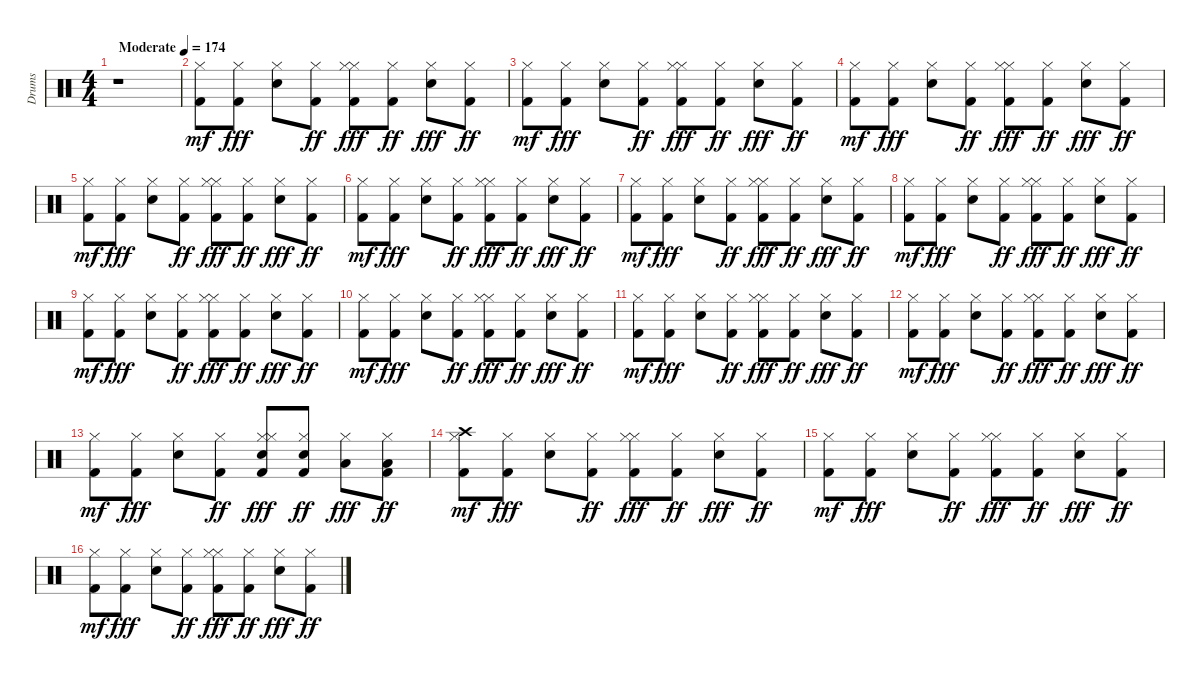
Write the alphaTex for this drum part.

\track ("Drums" "Drums") {instrument percussion}
\staff {score}
\articulation defaults
\ts (4 4)
\tempo (174 "Moderate")
\clef neutral
\ks c
r.1{dy mf} |
("Kick (hit) 2" "Hi-Hat (closed)").8 ("Hi-Hat (closed)" "Kick (hit) 2").8{dy fff} ("Hi-Hat (closed)" "Snare (hit) 2").8 ("Hi-Hat (closed)" "Kick (hit) 2").8{dy ff} ("Hi-Hat (closed)" "Hi-Hat (closed)" "Kick (hit) 2").8{dy fff} ("Hi-Hat (closed)" "Kick (hit) 2").8{dy ff} ("Hi-Hat (closed)" "Snare (hit) 2").8{dy fff} ("Hi-Hat (closed)" "Kick (hit) 2").8{dy ff} |
("Kick (hit) 2" "Hi-Hat (closed)").8{dy mf} ("Hi-Hat (closed)" "Kick (hit) 2").8{dy fff} ("Hi-Hat (closed)" "Snare (hit) 2").8 ("Hi-Hat (closed)" "Kick (hit) 2").8{dy ff} ("Hi-Hat (closed)" "Hi-Hat (closed)" "Kick (hit) 2").8{dy fff} ("Hi-Hat (closed)" "Kick (hit) 2").8{dy ff} ("Hi-Hat (closed)" "Snare (hit) 2").8{dy fff} ("Hi-Hat (closed)" "Kick (hit) 2").8{dy ff} |
("Kick (hit) 2" "Hi-Hat (closed)").8{dy mf} ("Hi-Hat (closed)" "Kick (hit) 2").8{dy fff} ("Hi-Hat (closed)" "Snare (hit) 2").8 ("Hi-Hat (closed)" "Kick (hit) 2").8{dy ff} ("Hi-Hat (closed)" "Hi-Hat (closed)" "Kick (hit) 2").8{dy fff} ("Hi-Hat (closed)" "Kick (hit) 2").8{dy ff} ("Hi-Hat (closed)" "Snare (hit) 2").8{dy fff} ("Hi-Hat (closed)" "Kick (hit) 2").8{dy ff} |
("Kick (hit) 2" "Hi-Hat (closed)").8{dy mf} ("Hi-Hat (closed)" "Kick (hit) 2").8{dy fff} ("Hi-Hat (closed)" "Snare (hit) 2").8 ("Hi-Hat (closed)" "Kick (hit) 2").8{dy ff} ("Hi-Hat (closed)" "Hi-Hat (closed)" "Kick (hit) 2").8{dy fff} ("Hi-Hat (closed)" "Kick (hit) 2").8{dy ff} ("Hi-Hat (closed)" "Snare (hit) 2").8{dy fff} ("Hi-Hat (closed)" "Kick (hit) 2").8{dy ff} |
("Kick (hit) 2" "Hi-Hat (closed)").8{dy mf} ("Hi-Hat (closed)" "Kick (hit) 2").8{dy fff} ("Hi-Hat (closed)" "Snare (hit) 2").8 ("Hi-Hat (closed)" "Kick (hit) 2").8{dy ff} ("Hi-Hat (closed)" "Hi-Hat (closed)" "Kick (hit) 2").8{dy fff} ("Hi-Hat (closed)" "Kick (hit) 2").8{dy ff} ("Hi-Hat (closed)" "Snare (hit) 2").8{dy fff} ("Hi-Hat (closed)" "Kick (hit) 2").8{dy ff} |
("Kick (hit) 2" "Hi-Hat (closed)").8{dy mf} ("Hi-Hat (closed)" "Kick (hit) 2").8{dy fff} ("Hi-Hat (closed)" "Snare (hit) 2").8 ("Hi-Hat (closed)" "Kick (hit) 2").8{dy ff} ("Hi-Hat (closed)" "Hi-Hat (closed)" "Kick (hit) 2").8{dy fff} ("Hi-Hat (closed)" "Kick (hit) 2").8{dy ff} ("Hi-Hat (closed)" "Snare (hit) 2").8{dy fff} ("Hi-Hat (closed)" "Kick (hit) 2").8{dy ff} |
("Kick (hit) 2" "Hi-Hat (closed)").8{dy mf} ("Hi-Hat (closed)" "Kick (hit) 2").8{dy fff} ("Hi-Hat (closed)" "Snare (hit) 2").8 ("Hi-Hat (closed)" "Kick (hit) 2").8{dy ff} ("Hi-Hat (closed)" "Hi-Hat (closed)" "Kick (hit) 2").8{dy fff} ("Hi-Hat (closed)" "Kick (hit) 2").8{dy ff} ("Hi-Hat (closed)" "Snare (hit) 2").8{dy fff} ("Hi-Hat (closed)" "Kick (hit) 2").8{dy ff} |
("Kick (hit) 2" "Hi-Hat (closed)").8{dy mf} ("Hi-Hat (closed)" "Kick (hit) 2").8{dy fff} ("Hi-Hat (closed)" "Snare (hit) 2").8 ("Hi-Hat (closed)" "Kick (hit) 2").8{dy ff} ("Hi-Hat (closed)" "Hi-Hat (closed)" "Kick (hit) 2").8{dy fff} ("Hi-Hat (closed)" "Kick (hit) 2").8{dy ff} ("Hi-Hat (closed)" "Snare (hit) 2").8{dy fff} ("Hi-Hat (closed)" "Kick (hit) 2").8{dy ff} |
("Kick (hit) 2" "Hi-Hat (closed)").8{dy mf} ("Hi-Hat (closed)" "Kick (hit) 2").8{dy fff} ("Hi-Hat (closed)" "Snare (hit) 2").8 ("Hi-Hat (closed)" "Kick (hit) 2").8{dy ff} ("Hi-Hat (closed)" "Hi-Hat (closed)" "Kick (hit) 2").8{dy fff} ("Hi-Hat (closed)" "Kick (hit) 2").8{dy ff} ("Hi-Hat (closed)" "Snare (hit) 2").8{dy fff} ("Hi-Hat (closed)" "Kick (hit) 2").8{dy ff} |
("Kick (hit) 2" "Hi-Hat (closed)").8{dy mf} ("Hi-Hat (closed)" "Kick (hit) 2").8{dy fff} ("Hi-Hat (closed)" "Snare (hit) 2").8 ("Hi-Hat (closed)" "Kick (hit) 2").8{dy ff} ("Hi-Hat (closed)" "Hi-Hat (closed)" "Kick (hit) 2").8{dy fff} ("Hi-Hat (closed)" "Kick (hit) 2").8{dy ff} ("Hi-Hat (closed)" "Snare (hit) 2").8{dy fff} ("Hi-Hat (closed)" "Kick (hit) 2").8{dy ff} |
("Kick (hit) 2" "Hi-Hat (closed)").8{dy mf} ("Hi-Hat (closed)" "Kick (hit) 2").8{dy fff} ("Hi-Hat (closed)" "Snare (hit) 2").8 ("Hi-Hat (closed)" "Kick (hit) 2").8{dy ff} ("Hi-Hat (closed)" "Hi-Hat (closed)" "Kick (hit) 2").8{dy fff} ("Hi-Hat (closed)" "Kick (hit) 2").8{dy ff} ("Hi-Hat (closed)" "Snare (hit) 2").8{dy fff} ("Hi-Hat (closed)" "Kick (hit) 2").8{dy ff} |
("Kick (hit) 2" "Hi-Hat (closed)").8{dy mf} ("Hi-Hat (closed)" "Kick (hit) 2").8{dy fff} ("Hi-Hat (closed)" "Snare (hit) 2").8 ("Hi-Hat (closed)" "Kick (hit) 2").8{dy ff} ("Hi-Hat (closed)" "Hi-Hat (closed)" "Electric Snare (hit)" "Kick (hit) 2").8{dy fff} ("Hi-Hat (closed)" "Snare (hit) 2" "Kick (hit) 2").8{dy ff} ("Hi-Hat (closed)" "Low Tom (hit)").8{dy fff} ("Hi-Hat (closed)" "Low Tom (hit)" "Kick (hit) 2").8{dy ff} |
("Kick (hit) 2" "Hi-Hat (closed)" "Crash high (hit)").8{dy mf} ("Hi-Hat (closed)" "Kick (hit) 2").8{dy fff} ("Hi-Hat (closed)" "Snare (hit) 2").8 ("Hi-Hat (closed)" "Kick (hit) 2").8{dy ff} ("Hi-Hat (closed)" "Hi-Hat (closed)" "Kick (hit) 2").8{dy fff} ("Hi-Hat (closed)" "Kick (hit) 2").8{dy ff} ("Hi-Hat (closed)" "Snare (hit) 2").8{dy fff} ("Hi-Hat (closed)" "Kick (hit) 2").8{dy ff} |
("Kick (hit) 2" "Hi-Hat (closed)").8{dy mf} ("Hi-Hat (closed)" "Kick (hit) 2").8{dy fff} ("Hi-Hat (closed)" "Snare (hit) 2").8 ("Hi-Hat (closed)" "Kick (hit) 2").8{dy ff} ("Hi-Hat (closed)" "Hi-Hat (closed)" "Kick (hit) 2").8{dy fff} ("Hi-Hat (closed)" "Kick (hit) 2").8{dy ff} ("Hi-Hat (closed)" "Snare (hit) 2").8{dy fff} ("Hi-Hat (closed)" "Kick (hit) 2").8{dy ff} |
("Kick (hit) 2" "Hi-Hat (closed)").8{dy mf} ("Hi-Hat (closed)" "Kick (hit) 2").8{dy fff} ("Hi-Hat (closed)" "Snare (hit) 2").8 ("Hi-Hat (closed)" "Kick (hit) 2").8{dy ff} ("Hi-Hat (closed)" "Hi-Hat (closed)" "Kick (hit) 2").8{dy fff} ("Hi-Hat (closed)" "Kick (hit) 2").8{dy ff} ("Hi-Hat (closed)" "Snare (hit) 2").8{dy fff} ("Hi-Hat (closed)" "Kick (hit) 2").8{dy ff}
